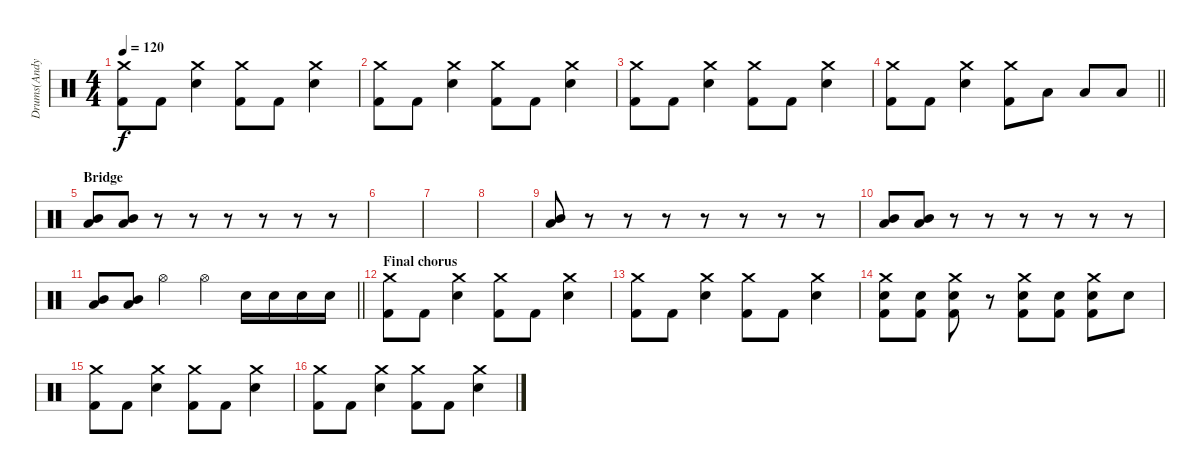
\track ("Drums(Andy Hurley)" "Drums(Andy") {instrument percussion}
\staff {score}
\articulation defaults
\ts (4 4)
\tempo 120
\clef neutral
\ks c
("Crash medium (hit)" "Kick (hit) 2").8{dy f} "Kick (hit) 2".8 ("Crash medium (hit)" "Electric Snare (hit)").4 ("Crash medium (hit)" "Kick (hit) 2").8 "Kick (hit) 2".8 ("Crash medium (hit)" "Electric Snare (hit)").4 |
("Crash medium (hit)" "Kick (hit) 2").8 "Kick (hit) 2".8 ("Crash medium (hit)" "Electric Snare (hit)").4 ("Crash medium (hit)" "Kick (hit) 2").8 "Kick (hit) 2".8 ("Crash medium (hit)" "Electric Snare (hit)").4 |
("Crash medium (hit)" "Kick (hit) 2").8 "Kick (hit) 2".8 ("Crash medium (hit)" "Electric Snare (hit)").4 ("Crash medium (hit)" "Kick (hit) 2").8 "Kick (hit) 2".8 ("Crash medium (hit)" "Electric Snare (hit)").4 |
\barLineRight lightlight
("Crash medium (hit)" "Kick (hit) 2").8 "Kick (hit) 2".8 ("Crash medium (hit)" "Electric Snare (hit)").4 ("Crash medium (hit)" "Kick (hit) 2").8 "Low Tom (hit)".8 "Low Tom (hit)".8 "Low Tom (hit)".8 |
\section ("" "Bridge")
("Mid Tom (hit)" "Low Tom (hit)").8 ("Mid Tom (hit)" "Low Tom (hit)").8 r.8 r.8 r.8 r.8 r.8 r.8 |
|
|
|
("Mid Tom (hit)" "Low Tom (hit)").8 r.8 r.8 r.8 r.8 r.8 r.8 r.8 |
("Mid Tom (hit)" "Low Tom (hit)").8 ("Mid Tom (hit)" "Low Tom (hit)").8 r.8 r.8 r.8 r.8 r.8 r.8 |
\barLineRight lightlight
("Mid Tom (hit)" "Low Tom (hit)").8 ("Mid Tom (hit)" "Low Tom (hit)").8 "Hi-Hat (open)".4 "Hi-Hat (open)".4 "Snare (hit) 2".16 "Snare (hit) 2".16 "Snare (hit) 2".16 "Snare (hit) 2".16 |
\section ("" "Final chorus")
("Crash medium (hit)" "Kick (hit) 2").8 "Kick (hit) 2".8 ("Crash medium (hit)" "Electric Snare (hit)").4 ("Crash medium (hit)" "Kick (hit) 2").8 "Kick (hit) 2".8 ("Crash medium (hit)" "Electric Snare (hit)").4 |
("Crash medium (hit)" "Kick (hit) 2").8 "Kick (hit) 2".8 ("Crash medium (hit)" "Electric Snare (hit)").4 ("Crash medium (hit)" "Kick (hit) 2").8 "Kick (hit) 2".8 ("Crash medium (hit)" "Electric Snare (hit)").4 |
("Crash medium (hit)" "Electric Snare (hit)" "Kick (hit) 2").8 ("Electric Snare (hit)" "Kick (hit) 2").8 ("Crash medium (hit)" "Electric Snare (hit)" "Kick (hit) 2").8 r.8 ("Crash medium (hit)" "Electric Snare (hit)" "Kick (hit) 2").8 ("Electric Snare (hit)" "Kick (hit) 2").8 ("Crash medium (hit)" "Electric Snare (hit)" "Kick (hit) 2").8 "Electric Snare (hit)".8 |
("Crash medium (hit)" "Kick (hit) 2").8 "Kick (hit) 2".8 ("Crash medium (hit)" "Electric Snare (hit)").4 ("Crash medium (hit)" "Kick (hit) 2").8 "Kick (hit) 2".8 ("Crash medium (hit)" "Electric Snare (hit)").4 |
("Crash medium (hit)" "Kick (hit) 2").8 "Kick (hit) 2".8 ("Crash medium (hit)" "Electric Snare (hit)").4 ("Crash medium (hit)" "Kick (hit) 2").8 "Kick (hit) 2".8 ("Crash medium (hit)" "Electric Snare (hit)").4
